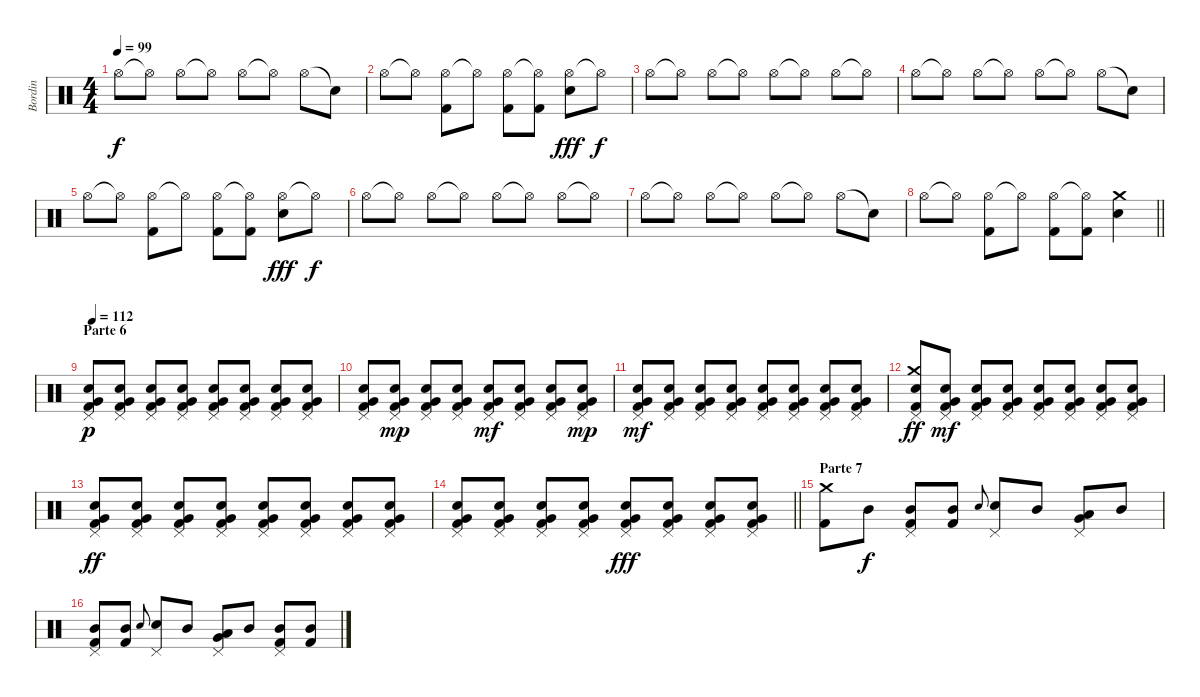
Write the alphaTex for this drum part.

\track ("Bordin" "Bordin") {instrument percussion}
\staff {score}
\articulation defaults
\ts (4 4)
\tempo 99
\clef neutral
\ks c "Hi-Hat (open)".8{dy f} "Hi-Hat (open)"{t}.8 "Hi-Hat (open)".8 "Hi-Hat (open)"{t}.8 "Hi-Hat (open)".8 "Hi-Hat (open)"{t}.8 "Hi-Hat (open)".8 "Snare (hit)"{t}.8
|
"Hi-Hat (open)".8 "Hi-Hat (open)"{t}.8 ("Hi-Hat (open)" "Kick (hit) 2").8 "Hi-Hat (open)"{t}.8 ("Hi-Hat (open)" "Kick (hit) 2").8 ("Hi-Hat (open)"{t} "Kick (hit) 2").8 ("Hi-Hat (open)" "Electric Snare (hit)").8{dy fff} "Hi-Hat (open)"{t}.8{dy f} |
"Hi-Hat (open)".8 "Hi-Hat (open)"{t}.8 "Hi-Hat (open)".8 "Hi-Hat (open)"{t}.8 "Hi-Hat (open)".8 "Hi-Hat (open)"{t}.8 "Hi-Hat (open)".8 "Hi-Hat (open)"{t}.8 |
"Hi-Hat (open)".8 "Hi-Hat (open)"{t}.8 "Hi-Hat (open)".8 "Hi-Hat (open)"{t}.8 "Hi-Hat (open)".8 "Hi-Hat (open)"{t}.8 "Hi-Hat (open)".8 "Snare (hit)"{t}.8 |
"Hi-Hat (open)".8 "Hi-Hat (open)"{t}.8 ("Hi-Hat (open)" "Kick (hit) 2").8 "Hi-Hat (open)"{t}.8 ("Hi-Hat (open)" "Kick (hit) 2").8 ("Hi-Hat (open)"{t} "Kick (hit) 2").8 ("Hi-Hat (open)" "Electric Snare (hit)").8{dy fff} "Hi-Hat (open)"{t}.8{dy f} |
"Hi-Hat (open)".8 "Hi-Hat (open)"{t}.8 "Hi-Hat (open)".8 "Hi-Hat (open)"{t}.8 "Hi-Hat (open)".8 "Hi-Hat (open)"{t}.8 "Hi-Hat (open)".8 "Hi-Hat (open)"{t}.8 |
"Hi-Hat (open)".8 "Hi-Hat (open)"{t}.8 "Hi-Hat (open)".8 "Hi-Hat (open)"{t}.8 "Hi-Hat (open)".8 "Hi-Hat (open)"{t}.8 "Hi-Hat (open)".8 "Snare (hit)"{t}.8 |
\barLineRight lightlight "Hi-Hat (open)".8 "Hi-Hat (open)"{t}.8
("Hi-Hat (open)" "Kick (hit) 2").8 "Hi-Hat (open)"{t}.8 ("Hi-Hat (open)" "Kick (hit) 2").8 ("Hi-Hat (open)"{t} "Kick (hit) 2").8 ("Crash medium (hit)" "Electric Snare (hit)").4 |
\section ("" "Parte 6")
\tempo 112
("Very Low Tom (hit)" "Pedal Hi-Hat (hit)" "Electric Snare (hit)" "Kick (hit) 2").8{dy p} ("Very Low Tom (hit)" "Pedal Hi-Hat (hit)" "Electric Snare (hit)" "Kick (hit) 2").8 ("Very Low Tom (hit)" "Pedal Hi-Hat (hit)" "Electric Snare (hit)" "Kick (hit) 2").8 ("Very Low Tom (hit)" "Pedal Hi-Hat (hit)" "Electric Snare (hit)" "Kick (hit) 2").8 ("Very Low Tom (hit)" "Pedal Hi-Hat (hit)" "Electric Snare (hit)" "Kick (hit) 2").8 ("Very Low Tom (hit)" "Pedal Hi-Hat (hit)" "Electric Snare (hit)" "Kick (hit) 2").8 ("Very Low Tom (hit)" "Pedal Hi-Hat (hit)" "Electric Snare (hit)" "Kick (hit) 2").8 ("Very Low Tom (hit)" "Pedal Hi-Hat (hit)" "Electric Snare (hit)" "Kick (hit) 2").8 |
("Very Low Tom (hit)" "Pedal Hi-Hat (hit)" "Electric Snare (hit)" "Kick (hit) 2").8 ("Very Low Tom (hit)" "Pedal Hi-Hat (hit)" "Electric Snare (hit)" "Kick (hit) 2").8{dy mp} ("Very Low Tom (hit)" "Pedal Hi-Hat (hit)" "Electric Snare (hit)" "Kick (hit) 2").8 ("Very Low Tom (hit)" "Pedal Hi-Hat (hit)" "Electric Snare (hit)" "Kick (hit) 2").8 ("Very Low Tom (hit)" "Pedal Hi-Hat (hit)" "Electric Snare (hit)" "Kick (hit) 2").8{dy mf} ("Very Low Tom (hit)" "Pedal Hi-Hat (hit)" "Electric Snare (hit)" "Kick (hit) 2").8 ("Very Low Tom (hit)" "Pedal Hi-Hat (hit)" "Electric Snare (hit)" "Kick (hit) 2").8 ("Very Low Tom (hit)" "Pedal Hi-Hat (hit)" "Electric Snare (hit)" "Kick (hit) 2").8{dy mp} |
("Very Low Tom (hit)" "Pedal Hi-Hat (hit)" "Electric Snare (hit)" "Kick (hit) 2").8{dy mf} ("Very Low Tom (hit)" "Pedal Hi-Hat (hit)" "Electric Snare (hit)" "Kick (hit) 2").8 ("Very Low Tom (hit)" "Pedal Hi-Hat (hit)" "Electric Snare (hit)" "Kick (hit) 2").8 ("Very Low Tom (hit)" "Pedal Hi-Hat (hit)" "Electric Snare (hit)" "Kick (hit) 2").8 ("Very Low Tom (hit)" "Pedal Hi-Hat (hit)" "Electric Snare (hit)" "Kick (hit) 2").8 ("Very Low Tom (hit)" "Pedal Hi-Hat (hit)" "Electric Snare (hit)" "Kick (hit) 2").8 ("Very Low Tom (hit)" "Pedal Hi-Hat (hit)" "Electric Snare (hit)" "Kick (hit) 2").8 ("Very Low Tom (hit)" "Pedal Hi-Hat (hit)" "Electric Snare (hit)" "Kick (hit) 2").8 |
("Crash medium (hit)" "Pedal Hi-Hat (hit)" "Electric Snare (hit)" "Kick (hit) 2").8{dy ff} ("Very Low Tom (hit)" "Pedal Hi-Hat (hit)" "Electric Snare (hit)" "Kick (hit) 2").8{dy mf} ("Very Low Tom (hit)" "Pedal Hi-Hat (hit)" "Electric Snare (hit)" "Kick (hit) 2").8 ("Very Low Tom (hit)" "Pedal Hi-Hat (hit)" "Electric Snare (hit)" "Kick (hit) 2").8 ("Very Low Tom (hit)" "Pedal Hi-Hat (hit)" "Electric Snare (hit)" "Kick (hit) 2").8 ("Very Low Tom (hit)" "Pedal Hi-Hat (hit)" "Electric Snare (hit)" "Kick (hit) 2").8 ("Very Low Tom (hit)" "Pedal Hi-Hat (hit)" "Electric Snare (hit)" "Kick (hit) 2").8 ("Very Low Tom (hit)" "Pedal Hi-Hat (hit)" "Electric Snare (hit)" "Kick (hit) 2").8 |
("Very Low Tom (hit)" "Pedal Hi-Hat (hit)" "Electric Snare (hit)" "Kick (hit) 2").8{dy ff} ("Very Low Tom (hit)" "Pedal Hi-Hat (hit)" "Electric Snare (hit)" "Kick (hit) 2").8 ("Very Low Tom (hit)" "Pedal Hi-Hat (hit)" "Electric Snare (hit)" "Kick (hit) 2").8 ("Very Low Tom (hit)" "Pedal Hi-Hat (hit)" "Electric Snare (hit)" "Kick (hit) 2").8 ("Very Low Tom (hit)" "Pedal Hi-Hat (hit)" "Electric Snare (hit)" "Kick (hit) 2").8 ("Very Low Tom (hit)" "Pedal Hi-Hat (hit)" "Electric Snare (hit)" "Kick (hit) 2").8 ("Very Low Tom (hit)" "Pedal Hi-Hat (hit)" "Electric Snare (hit)" "Kick (hit) 2").8 ("Very Low Tom (hit)" "Pedal Hi-Hat (hit)" "Electric Snare (hit)" "Kick (hit) 2").8 |
\barLineRight lightlight
("Very Low Tom (hit)" "Pedal Hi-Hat (hit)" "Electric Snare (hit)" "Kick (hit) 2").8 ("Very Low Tom (hit)" "Pedal Hi-Hat (hit)" "Electric Snare (hit)" "Kick (hit) 2").8 ("Very Low Tom (hit)" "Pedal Hi-Hat (hit)" "Electric Snare (hit)" "Kick (hit) 2").8 ("Very Low Tom (hit)" "Pedal Hi-Hat (hit)" "Electric Snare (hit)" "Kick (hit) 2").8 ("Very Low Tom (hit)" "Pedal Hi-Hat (hit)" "Electric Snare (hit)" "Kick (hit) 2").8{dy fff} ("Very Low Tom (hit)" "Pedal Hi-Hat (hit)" "Electric Snare (hit)" "Kick (hit) 2").8 ("Very Low Tom (hit)" "Pedal Hi-Hat (hit)" "Electric Snare (hit)" "Kick (hit) 2").8 ("Very Low Tom (hit)" "Pedal Hi-Hat (hit)" "Electric Snare (hit)" "Kick (hit) 2").8 |
\section ("" "Parte 7")
("Crash medium (hit)" "Kick (hit) 2").8 "Mid Tom (hit)".8{dy f} ("Mid Tom (hit)" "Pedal Hi-Hat (hit)" "Kick (hit) 2").8 ("Mid Tom (hit)" "Kick (hit) 2").8 "Electric Snare (hit)".8{gr onbeat} ("Pedal Hi-Hat (hit)" "Electric Snare (hit)").8 "Mid Tom (hit)".8 ("Low Tom (hit)" "Very Low Tom (hit)" "Pedal Hi-Hat (hit)").8 "Mid Tom (hit)".8 |
("Mid Tom (hit)" "Pedal Hi-Hat (hit)" "Kick (hit) 2").8 ("Mid Tom (hit)" "Kick (hit) 2").8 "Electric Snare (hit)".8{gr onbeat} ("Pedal Hi-Hat (hit)" "Electric Snare (hit)").8 "Mid Tom (hit)".8 ("Low Tom (hit)" "Very Low Tom (hit)" "Pedal Hi-Hat (hit)").8 "Mid Tom (hit)".8 ("Mid Tom (hit)" "Pedal Hi-Hat (hit)" "Kick (hit) 2").8 ("Mid Tom (hit)" "Kick (hit) 2").8
